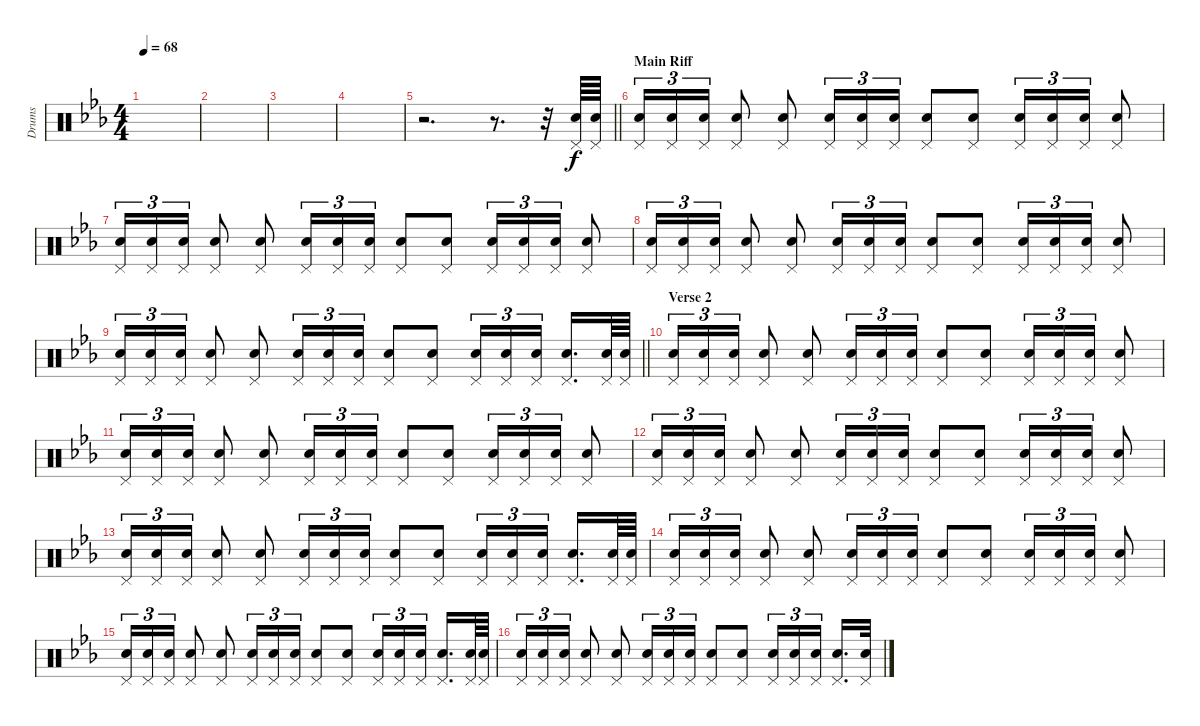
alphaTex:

\track ("Drums" "Drums") {instrument percussion}
\staff {score}
\articulation defaults
\ts (4 4)
\tempo 68
\clef neutral
\ks eb
|
|
|
|
\barLineRight lightlight
r.2{d} r.8{d} r.32 ("Pedal Hi-Hat (hit)" "Electric Snare (hit)").64 ("Pedal Hi-Hat (hit)" "Electric Snare (hit)").64 |
\section ("" "Main Riff")
("Pedal Hi-Hat (hit)" "Electric Snare (hit)").16{tu (3 2)} ("Pedal Hi-Hat (hit)" "Electric Snare (hit)").16{tu (3 2)} ("Pedal Hi-Hat (hit)" "Electric Snare (hit)").16{tu (3 2)} ("Pedal Hi-Hat (hit)" "Electric Snare (hit)").8 ("Pedal Hi-Hat (hit)" "Electric Snare (hit)").8 ("Pedal Hi-Hat (hit)" "Electric Snare (hit)").16{tu (3 2)} ("Pedal Hi-Hat (hit)" "Electric Snare (hit)").16{tu (3 2)} ("Pedal Hi-Hat (hit)" "Electric Snare (hit)").16{tu (3 2)} ("Pedal Hi-Hat (hit)" "Electric Snare (hit)").8 ("Pedal Hi-Hat (hit)" "Electric Snare (hit)").8 ("Pedal Hi-Hat (hit)" "Electric Snare (hit)").16{tu (3 2)} ("Pedal Hi-Hat (hit)" "Electric Snare (hit)").16{tu (3 2)} ("Pedal Hi-Hat (hit)" "Electric Snare (hit)").16{tu (3 2)} ("Pedal Hi-Hat (hit)" "Electric Snare (hit)").8 |
("Pedal Hi-Hat (hit)" "Electric Snare (hit)").16{tu (3 2)} ("Pedal Hi-Hat (hit)" "Electric Snare (hit)").16{tu (3 2)} ("Pedal Hi-Hat (hit)" "Electric Snare (hit)").16{tu (3 2)} ("Pedal Hi-Hat (hit)" "Electric Snare (hit)").8 ("Pedal Hi-Hat (hit)" "Electric Snare (hit)").8 ("Pedal Hi-Hat (hit)" "Electric Snare (hit)").16{tu (3 2)} ("Pedal Hi-Hat (hit)" "Electric Snare (hit)").16{tu (3 2)} ("Pedal Hi-Hat (hit)" "Electric Snare (hit)").16{tu (3 2)} ("Pedal Hi-Hat (hit)" "Electric Snare (hit)").8 ("Pedal Hi-Hat (hit)" "Electric Snare (hit)").8 ("Pedal Hi-Hat (hit)" "Electric Snare (hit)").16{tu (3 2)} ("Pedal Hi-Hat (hit)" "Electric Snare (hit)").16{tu (3 2)} ("Pedal Hi-Hat (hit)" "Electric Snare (hit)").16{tu (3 2)} ("Pedal Hi-Hat (hit)" "Electric Snare (hit)").8 |
("Pedal Hi-Hat (hit)" "Electric Snare (hit)").16{tu (3 2)} ("Pedal Hi-Hat (hit)" "Electric Snare (hit)").16{tu (3 2)} ("Pedal Hi-Hat (hit)" "Electric Snare (hit)").16{tu (3 2)} ("Pedal Hi-Hat (hit)" "Electric Snare (hit)").8 ("Pedal Hi-Hat (hit)" "Electric Snare (hit)").8 ("Pedal Hi-Hat (hit)" "Electric Snare (hit)").16{tu (3 2)} ("Pedal Hi-Hat (hit)" "Electric Snare (hit)").16{tu (3 2)} ("Pedal Hi-Hat (hit)" "Electric Snare (hit)").16{tu (3 2)} ("Pedal Hi-Hat (hit)" "Electric Snare (hit)").8 ("Pedal Hi-Hat (hit)" "Electric Snare (hit)").8 ("Pedal Hi-Hat (hit)" "Electric Snare (hit)").16{tu (3 2)} ("Pedal Hi-Hat (hit)" "Electric Snare (hit)").16{tu (3 2)} ("Pedal Hi-Hat (hit)" "Electric Snare (hit)").16{tu (3 2)} ("Pedal Hi-Hat (hit)" "Electric Snare (hit)").8 |
\barLineRight lightlight
("Pedal Hi-Hat (hit)" "Electric Snare (hit)").16{tu (3 2)} ("Pedal Hi-Hat (hit)" "Electric Snare (hit)").16{tu (3 2)} ("Pedal Hi-Hat (hit)" "Electric Snare (hit)").16{tu (3 2)} ("Pedal Hi-Hat (hit)" "Electric Snare (hit)").8 ("Pedal Hi-Hat (hit)" "Electric Snare (hit)").8 ("Pedal Hi-Hat (hit)" "Electric Snare (hit)").16{tu (3 2)} ("Pedal Hi-Hat (hit)" "Electric Snare (hit)").16{tu (3 2)} ("Pedal Hi-Hat (hit)" "Electric Snare (hit)").16{tu (3 2)} ("Pedal Hi-Hat (hit)" "Electric Snare (hit)").8 ("Pedal Hi-Hat (hit)" "Electric Snare (hit)").8 ("Pedal Hi-Hat (hit)" "Electric Snare (hit)").16{tu (3 2)} ("Pedal Hi-Hat (hit)" "Electric Snare (hit)").16{tu (3 2)} ("Pedal Hi-Hat (hit)" "Electric Snare (hit)").16{tu (3 2) beam splitsecondary} ("Pedal Hi-Hat (hit)" "Electric Snare (hit)").16{d} ("Pedal Hi-Hat (hit)" "Electric Snare (hit)").64 ("Pedal Hi-Hat (hit)" "Electric Snare (hit)").64 |
\section ("" "Verse 2")
("Pedal Hi-Hat (hit)" "Electric Snare (hit)").16{tu (3 2)} ("Pedal Hi-Hat (hit)" "Electric Snare (hit)").16{tu (3 2)} ("Pedal Hi-Hat (hit)" "Electric Snare (hit)").16{tu (3 2)} ("Pedal Hi-Hat (hit)" "Electric Snare (hit)").8 ("Pedal Hi-Hat (hit)" "Electric Snare (hit)").8 ("Pedal Hi-Hat (hit)" "Electric Snare (hit)").16{tu (3 2)} ("Pedal Hi-Hat (hit)" "Electric Snare (hit)").16{tu (3 2)} ("Pedal Hi-Hat (hit)" "Electric Snare (hit)").16{tu (3 2)} ("Pedal Hi-Hat (hit)" "Electric Snare (hit)").8 ("Pedal Hi-Hat (hit)" "Electric Snare (hit)").8 ("Pedal Hi-Hat (hit)" "Electric Snare (hit)").16{tu (3 2)} ("Pedal Hi-Hat (hit)" "Electric Snare (hit)").16{tu (3 2)} ("Pedal Hi-Hat (hit)" "Electric Snare (hit)").16{tu (3 2)} ("Pedal Hi-Hat (hit)" "Electric Snare (hit)").8 |
("Pedal Hi-Hat (hit)" "Electric Snare (hit)").16{tu (3 2)} ("Pedal Hi-Hat (hit)" "Electric Snare (hit)").16{tu (3 2)} ("Pedal Hi-Hat (hit)" "Electric Snare (hit)").16{tu (3 2)} ("Pedal Hi-Hat (hit)" "Electric Snare (hit)").8 ("Pedal Hi-Hat (hit)" "Electric Snare (hit)").8 ("Pedal Hi-Hat (hit)" "Electric Snare (hit)").16{tu (3 2)} ("Pedal Hi-Hat (hit)" "Electric Snare (hit)").16{tu (3 2)} ("Pedal Hi-Hat (hit)" "Electric Snare (hit)").16{tu (3 2)} ("Pedal Hi-Hat (hit)" "Electric Snare (hit)").8 ("Pedal Hi-Hat (hit)" "Electric Snare (hit)").8 ("Pedal Hi-Hat (hit)" "Electric Snare (hit)").16{tu (3 2)} ("Pedal Hi-Hat (hit)" "Electric Snare (hit)").16{tu (3 2)} ("Pedal Hi-Hat (hit)" "Electric Snare (hit)").16{tu (3 2)} ("Pedal Hi-Hat (hit)" "Electric Snare (hit)").8 |
("Pedal Hi-Hat (hit)" "Electric Snare (hit)").16{tu (3 2)} ("Pedal Hi-Hat (hit)" "Electric Snare (hit)").16{tu (3 2)} ("Pedal Hi-Hat (hit)" "Electric Snare (hit)").16{tu (3 2)} ("Pedal Hi-Hat (hit)" "Electric Snare (hit)").8 ("Pedal Hi-Hat (hit)" "Electric Snare (hit)").8 ("Pedal Hi-Hat (hit)" "Electric Snare (hit)").16{tu (3 2)} ("Pedal Hi-Hat (hit)" "Electric Snare (hit)").16{tu (3 2)} ("Pedal Hi-Hat (hit)" "Electric Snare (hit)").16{tu (3 2)} ("Pedal Hi-Hat (hit)" "Electric Snare (hit)").8 ("Pedal Hi-Hat (hit)" "Electric Snare (hit)").8 ("Pedal Hi-Hat (hit)" "Electric Snare (hit)").16{tu (3 2)} ("Pedal Hi-Hat (hit)" "Electric Snare (hit)").16{tu (3 2)} ("Pedal Hi-Hat (hit)" "Electric Snare (hit)").16{tu (3 2)} ("Pedal Hi-Hat (hit)" "Electric Snare (hit)").8 |
("Pedal Hi-Hat (hit)" "Electric Snare (hit)").16{tu (3 2)} ("Pedal Hi-Hat (hit)" "Electric Snare (hit)").16{tu (3 2)} ("Pedal Hi-Hat (hit)" "Electric Snare (hit)").16{tu (3 2)} ("Pedal Hi-Hat (hit)" "Electric Snare (hit)").8 ("Pedal Hi-Hat (hit)" "Electric Snare (hit)").8 ("Pedal Hi-Hat (hit)" "Electric Snare (hit)").16{tu (3 2)} ("Pedal Hi-Hat (hit)" "Electric Snare (hit)").16{tu (3 2)} ("Pedal Hi-Hat (hit)" "Electric Snare (hit)").16{tu (3 2)} ("Pedal Hi-Hat (hit)" "Electric Snare (hit)").8 ("Pedal Hi-Hat (hit)" "Electric Snare (hit)").8 ("Pedal Hi-Hat (hit)" "Electric Snare (hit)").16{tu (3 2)} ("Pedal Hi-Hat (hit)" "Electric Snare (hit)").16{tu (3 2)} ("Pedal Hi-Hat (hit)" "Electric Snare (hit)").16{tu (3 2) beam splitsecondary} ("Pedal Hi-Hat (hit)" "Electric Snare (hit)").16{d} ("Pedal Hi-Hat (hit)" "Electric Snare (hit)").64 ("Pedal Hi-Hat (hit)" "Electric Snare (hit)").64 |
("Pedal Hi-Hat (hit)" "Electric Snare (hit)").16{tu (3 2)} ("Pedal Hi-Hat (hit)" "Electric Snare (hit)").16{tu (3 2)} ("Pedal Hi-Hat (hit)" "Electric Snare (hit)").16{tu (3 2)} ("Pedal Hi-Hat (hit)" "Electric Snare (hit)").8 ("Pedal Hi-Hat (hit)" "Electric Snare (hit)").8 ("Pedal Hi-Hat (hit)" "Electric Snare (hit)").16{tu (3 2)} ("Pedal Hi-Hat (hit)" "Electric Snare (hit)").16{tu (3 2)} ("Pedal Hi-Hat (hit)" "Electric Snare (hit)").16{tu (3 2)} ("Pedal Hi-Hat (hit)" "Electric Snare (hit)").8 ("Pedal Hi-Hat (hit)" "Electric Snare (hit)").8 ("Pedal Hi-Hat (hit)" "Electric Snare (hit)").16{tu (3 2)} ("Pedal Hi-Hat (hit)" "Electric Snare (hit)").16{tu (3 2)} ("Pedal Hi-Hat (hit)" "Electric Snare (hit)").16{tu (3 2)} ("Pedal Hi-Hat (hit)" "Electric Snare (hit)").8 |
("Pedal Hi-Hat (hit)" "Electric Snare (hit)").16{tu (3 2)} ("Pedal Hi-Hat (hit)" "Electric Snare (hit)").16{tu (3 2)} ("Pedal Hi-Hat (hit)" "Electric Snare (hit)").16{tu (3 2)} ("Pedal Hi-Hat (hit)" "Electric Snare (hit)").8 ("Pedal Hi-Hat (hit)" "Electric Snare (hit)").8 ("Pedal Hi-Hat (hit)" "Electric Snare (hit)").16{tu (3 2)} ("Pedal Hi-Hat (hit)" "Electric Snare (hit)").16{tu (3 2)} ("Pedal Hi-Hat (hit)" "Electric Snare (hit)").16{tu (3 2)} ("Pedal Hi-Hat (hit)" "Electric Snare (hit)").8 ("Pedal Hi-Hat (hit)" "Electric Snare (hit)").8 ("Pedal Hi-Hat (hit)" "Electric Snare (hit)").16{tu (3 2)} ("Pedal Hi-Hat (hit)" "Electric Snare (hit)").16{tu (3 2)} ("Pedal Hi-Hat (hit)" "Electric Snare (hit)").16{tu (3 2) beam splitsecondary} ("Pedal Hi-Hat (hit)" "Electric Snare (hit)").16{d} ("Pedal Hi-Hat (hit)" "Electric Snare (hit)").64 ("Pedal Hi-Hat (hit)" "Electric Snare (hit)").64 |
("Pedal Hi-Hat (hit)" "Electric Snare (hit)").16{tu (3 2)} ("Pedal Hi-Hat (hit)" "Electric Snare (hit)").16{tu (3 2)} ("Pedal Hi-Hat (hit)" "Electric Snare (hit)").16{tu (3 2)} ("Pedal Hi-Hat (hit)" "Electric Snare (hit)").8 ("Pedal Hi-Hat (hit)" "Electric Snare (hit)").8 ("Pedal Hi-Hat (hit)" "Electric Snare (hit)").16{tu (3 2)} ("Pedal Hi-Hat (hit)" "Electric Snare (hit)").16{tu (3 2)} ("Pedal Hi-Hat (hit)" "Electric Snare (hit)").16{tu (3 2)} ("Pedal Hi-Hat (hit)" "Electric Snare (hit)").8 ("Pedal Hi-Hat (hit)" "Electric Snare (hit)").8 ("Pedal Hi-Hat (hit)" "Electric Snare (hit)").16{tu (3 2)} ("Pedal Hi-Hat (hit)" "Electric Snare (hit)").16{tu (3 2)} ("Pedal Hi-Hat (hit)" "Electric Snare (hit)").16{tu (3 2) beam splitsecondary} ("Pedal Hi-Hat (hit)" "Electric Snare (hit)").16{d} ("Pedal Hi-Hat (hit)" "Electric Snare (hit)").32
